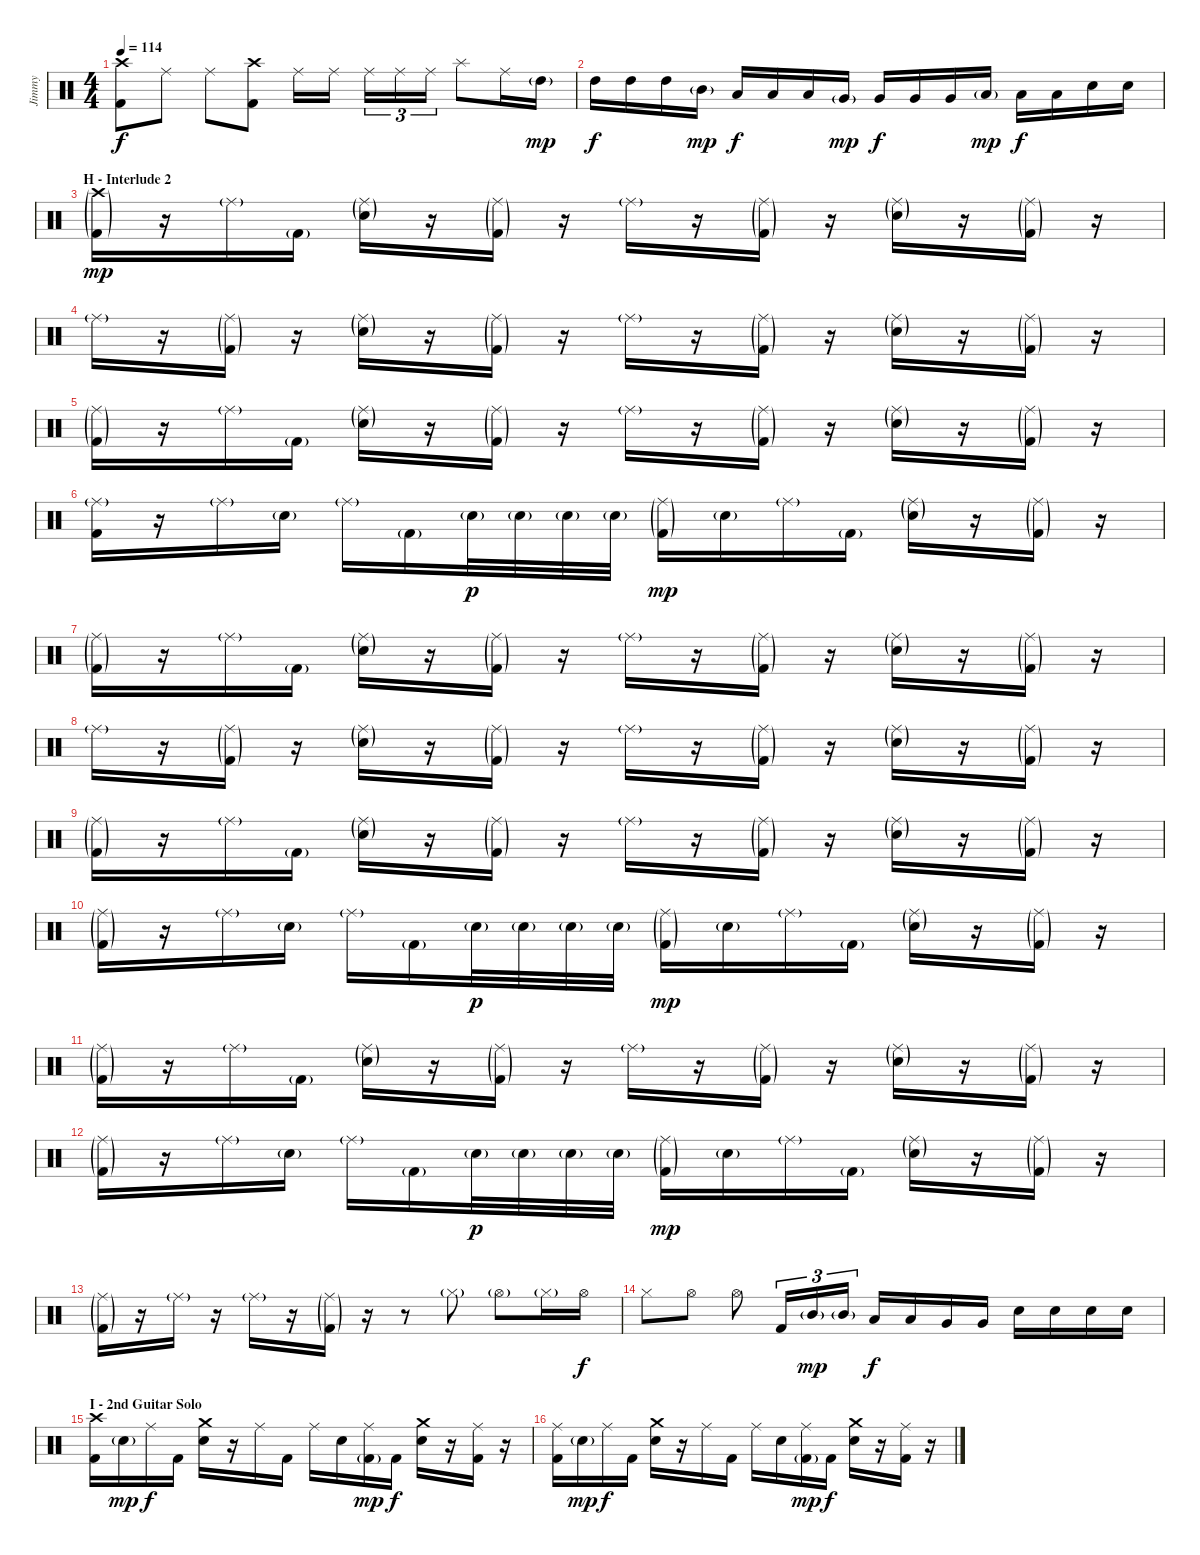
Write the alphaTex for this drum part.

\track ("Jimmy" "Jimmy") {instrument percussion}
\staff {score}
\articulation defaults
\ts (4 4)
\tempo 114
\clef neutral
\ks c
("Crash high (hit)" "Kick (hit) 2").8{dy f} "Ride (middle)".8 "Ride (middle)".8 ("Crash high (hit)" "Kick (hit) 2").8 "Ride (middle)".16 "Ride (middle)".16 "Ride (middle)".16{tu (3 2)} "Ride (middle)".16{tu (3 2)} "Ride (middle)".16{tu (3 2)} "Splash (hit)".8 "Ride (middle)".16 "High Tom (hit)"{g}.16{dy mp} |
"High Tom (hit)".16{dy f} "High Tom (hit)".16 "High Tom (hit)".16 "Mid Tom (hit)"{g}.16{dy mp} "Low Tom (hit)".16{dy f} "Low Tom (hit)".16 "Low Tom (hit)".16 "Very Low Tom (hit)"{g}.16{dy mp} "Very Low Tom (hit)".16{dy f} "Very Low Tom (hit)".16 "Very Low Tom (hit)".16 "Low Floor Tom (hit)"{g}.16{dy mp} "Low Floor Tom (hit)".16{dy f} "Low Floor Tom (hit)".16 "Electric Snare (hit)".16 "Electric Snare (hit)".16 |
\section ("" "H - Interlude 2")
("Crash high (hit)"{g} "Kick (hit) 2"{g}).16{dy mp} r.16 "Ride (middle)"{g}.16 "Kick (hit) 2"{g}.16 ("Ride (middle)"{g} "Electric Snare (hit)"{g}).16 r.16 ("Ride (middle)"{g} "Kick (hit) 2"{g}).16 r.16 "Ride (middle)"{g}.16 r.16 ("Ride (middle)"{g} "Kick (hit) 2"{g}).16 r.16 ("Ride (middle)"{g} "Electric Snare (hit)"{g}).16 r.16 ("Ride (middle)"{g} "Kick (hit) 2"{g}).16 r.16 |
"Ride (middle)"{g}.16 r.16 ("Ride (middle)"{g} "Kick (hit) 2"{g}).16 r.16 ("Ride (middle)"{g} "Electric Snare (hit)"{g}).16 r.16 ("Ride (middle)"{g} "Kick (hit) 2"{g}).16 r.16 "Ride (middle)"{g}.16 r.16 ("Ride (middle)"{g} "Kick (hit) 2"{g}).16 r.16 ("Ride (middle)"{g} "Electric Snare (hit)"{g}).16 r.16 ("Ride (middle)"{g} "Kick (hit) 2"{g}).16 r.16 |
("Ride (middle)"{g} "Kick (hit) 2"{g}).16 r.16 "Ride (middle)"{g}.16 "Kick (hit) 2"{g}.16 ("Ride (middle)"{g} "Electric Snare (hit)"{g}).16 r.16 ("Ride (middle)"{g} "Kick (hit) 2"{g}).16 r.16 "Ride (middle)"{g}.16 r.16 ("Ride (middle)"{g} "Kick (hit) 2"{g}).16 r.16 ("Ride (middle)"{g} "Electric Snare (hit)"{g}).16 r.16 ("Ride (middle)"{g} "Kick (hit) 2"{g}).16 r.16 |
("Ride (middle)"{g} "Kick (hit) 2").16 r.16 "Ride (middle)"{g}.16 "Electric Snare (hit)"{g}.16 "Ride (middle)"{g}.16 "Kick (hit) 2"{g}.16 "Electric Snare (hit)"{g}.32{dy p} "Electric Snare (hit)"{g}.32 "Electric Snare (hit)"{g}.32 "Electric Snare (hit)"{g}.32 ("Ride (middle)"{g} "Kick (hit) 2"{g}).16{dy mp} "Electric Snare (hit)"{g}.16 "Ride (middle)"{g}.16 "Kick (hit) 2"{g}.16 ("Ride (middle)"{g} "Electric Snare (hit)"{g}).16 r.16 ("Ride (middle)"{g} "Kick (hit) 2"{g}).16 r.16 |
("Ride (middle)"{g} "Kick (hit) 2"{g}).16 r.16 "Ride (middle)"{g}.16 "Kick (hit) 2"{g}.16 ("Ride (middle)"{g} "Electric Snare (hit)"{g}).16 r.16 ("Ride (middle)"{g} "Kick (hit) 2"{g}).16 r.16 "Ride (middle)"{g}.16 r.16 ("Ride (middle)"{g} "Kick (hit) 2"{g}).16 r.16 ("Ride (middle)"{g} "Electric Snare (hit)"{g}).16 r.16 ("Ride (middle)"{g} "Kick (hit) 2"{g}).16 r.16 |
"Ride (middle)"{g}.16 r.16 ("Ride (middle)"{g} "Kick (hit) 2"{g}).16 r.16 ("Ride (middle)"{g} "Electric Snare (hit)"{g}).16 r.16 ("Ride (middle)"{g} "Kick (hit) 2"{g}).16 r.16 "Ride (middle)"{g}.16 r.16 ("Ride (middle)"{g} "Kick (hit) 2"{g}).16 r.16 ("Ride (middle)"{g} "Electric Snare (hit)"{g}).16 r.16 ("Ride (middle)"{g} "Kick (hit) 2"{g}).16 r.16 |
("Ride (middle)"{g} "Kick (hit) 2"{g}).16 r.16 "Ride (middle)"{g}.16 "Kick (hit) 2"{g}.16 ("Ride (middle)"{g} "Electric Snare (hit)"{g}).16 r.16 ("Ride (middle)"{g} "Kick (hit) 2"{g}).16 r.16 "Ride (middle)"{g}.16 r.16 ("Ride (middle)"{g} "Kick (hit) 2"{g}).16 r.16 ("Ride (middle)"{g} "Electric Snare (hit)"{g}).16 r.16 ("Ride (middle)"{g} "Kick (hit) 2"{g}).16 r.16 |
("Ride (middle)"{g} "Kick (hit) 2"{g}).16 r.16 "Ride (middle)"{g}.16 "Electric Snare (hit)"{g}.16 "Ride (middle)"{g}.16 "Kick (hit) 2"{g}.16 "Electric Snare (hit)"{g}.32{dy p} "Electric Snare (hit)"{g}.32 "Electric Snare (hit)"{g}.32 "Electric Snare (hit)"{g}.32 ("Ride (middle)"{g} "Kick (hit) 2"{g}).16{dy mp} "Electric Snare (hit)"{g}.16 "Ride (middle)"{g}.16 "Kick (hit) 2"{g}.16 ("Ride (middle)"{g} "Electric Snare (hit)"{g}).16 r.16 ("Ride (middle)"{g} "Kick (hit) 2"{g}).16 r.16 |
("Ride (middle)"{g} "Kick (hit) 2"{g}).16 r.16 "Ride (middle)"{g}.16 "Kick (hit) 2"{g}.16 ("Ride (middle)"{g} "Electric Snare (hit)"{g}).16 r.16 ("Ride (middle)"{g} "Kick (hit) 2"{g}).16 r.16 "Ride (middle)"{g}.16 r.16 ("Ride (middle)"{g} "Kick (hit) 2"{g}).16 r.16 ("Ride (middle)"{g} "Electric Snare (hit)"{g}).16 r.16 ("Ride (middle)"{g} "Kick (hit) 2"{g}).16 r.16 |
("Ride (middle)"{g} "Kick (hit) 2"{g}).16 r.16 "Ride (middle)"{g}.16 "Electric Snare (hit)"{g}.16 "Ride (middle)"{g}.16 "Kick (hit) 2"{g}.16 "Electric Snare (hit)"{g}.32{dy p} "Electric Snare (hit)"{g}.32 "Electric Snare (hit)"{g}.32 "Electric Snare (hit)"{g}.32 ("Ride (middle)"{g} "Kick (hit) 2"{g}).16{dy mp} "Electric Snare (hit)"{g}.16 "Ride (middle)"{g}.16 "Kick (hit) 2"{g}.16 ("Ride (middle)"{g} "Electric Snare (hit)"{g}).16 r.16 ("Ride (middle)"{g} "Kick (hit) 2"{g}).16 r.16 |
("Ride (middle)"{g} "Kick (hit) 2"{g}).16 r.16 "Ride (middle)"{g}.16 r.16 "Ride (middle)"{g}.16 r.16 ("Ride (middle)"{g} "Kick (hit) 2"{g}).16 r.16 r.8 "Hi-Hat (closed)"{g}.8 "Hi-Hat (open)"{g}.8 "Hi-Hat (closed)"{g}.16 "Hi-Hat (open)".16{dy f} |
"Hi-Hat (closed)".8 "Hi-Hat (open)".8 "Hi-Hat (open)".8 "Kick (hit) 2".16{tu (3 2)} "Mid Tom (hit)"{g}.16{tu (3 2) dy mp} "Mid Tom (hit)"{g}.16{tu (3 2)} "Low Tom (hit)".16{dy f} "Low Tom (hit)".16 "Very Low Tom (hit)".16 "Very Low Tom (hit)".16 "Electric Snare (hit)".16 "Electric Snare (hit)".16 "Electric Snare (hit)".16 "Electric Snare (hit)".16 |
\section ("" "I - 2nd Guitar Solo")
("Crash high (hit)" "Kick (hit) 2").16 "Electric Snare (hit)"{g}.16{dy mp} "Ride (middle)".16{dy f} "Kick (hit) 2".16 ("Crash medium (hit)" "Electric Snare (hit)").16 r.16 "Ride (middle)".16 "Kick (hit) 2".16 "Ride (middle)".16 "Electric Snare (hit)".16 ("Ride (middle)" "Kick (hit) 2"{g}).16{dy mp} "Kick (hit) 2".16{dy f} ("Crash medium (hit)" "Electric Snare (hit)").16 r.16 ("Ride (middle)" "Kick (hit) 2").16 r.16 |
("Ride (middle)" "Kick (hit) 2").16 "Electric Snare (hit)"{g}.16{dy mp} "Ride (middle)".16{dy f} "Kick (hit) 2".16 ("Crash medium (hit)" "Electric Snare (hit)").16 r.16 "Ride (middle)".16 "Kick (hit) 2".16 "Ride (middle)".16 "Electric Snare (hit)".16 ("Ride (middle)" "Kick (hit) 2"{g}).16{dy mp} "Kick (hit) 2".16{dy f} ("Crash medium (hit)" "Electric Snare (hit)").16 r.16 ("Ride (middle)" "Kick (hit) 2").16 r.16
